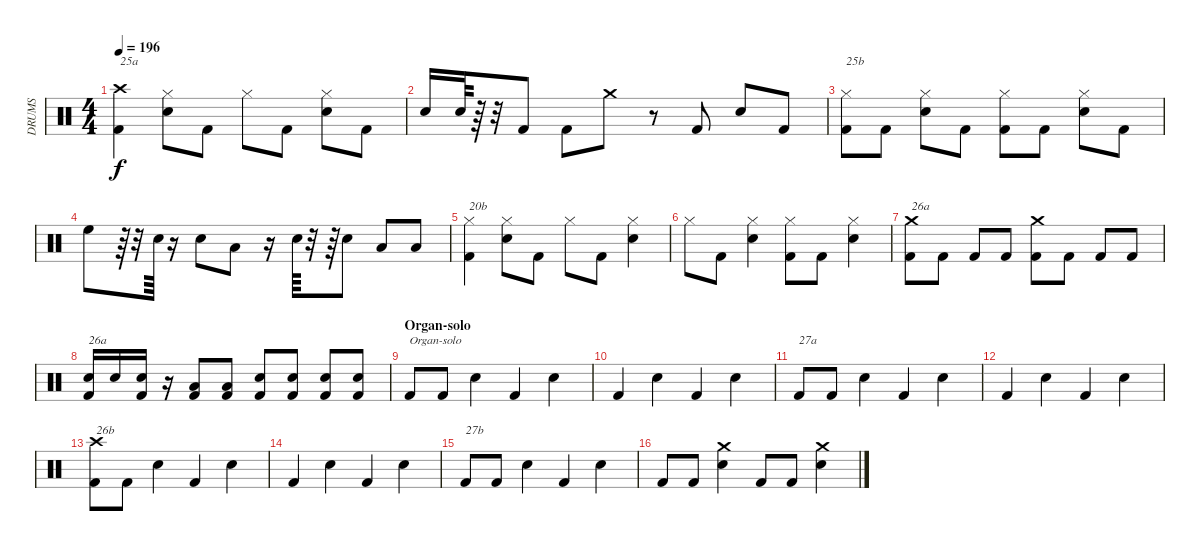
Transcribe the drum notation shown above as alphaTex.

\track ("DRUMS" "DRUMS") {instrument percussion}
\staff {score}
\articulation defaults
\ts (4 4)
\tempo 196
\clef neutral
\ks c
("Crash high (hit)" "Kick (hit) 2").4{txt "25a" dy f} ("Hi-Hat (closed)" "Snare (hit) 2").8 "Kick (hit) 2".8 "Hi-Hat (closed)".8 "Kick (hit) 2".8 ("Hi-Hat (closed)" "Snare (hit) 2").8 "Kick (hit) 2".8 |
"Snare (hit) 2".16 "Snare (hit) 2".64 r.64 r.32 "Kick (hit) 2".8 "Kick (hit) 2".8 "Crash medium (hit)".8 r.8 "Kick (hit) 2".8 "Snare (hit) 2".8 "Kick (hit) 2".8 |
("Hi-Hat (closed)" "Kick (hit) 2").8{txt "25b"} "Kick (hit) 2".8 ("Hi-Hat (closed)" "Snare (hit) 2").8 "Kick (hit) 2".8 ("Hi-Hat (closed)" "Kick (hit) 2").8 "Kick (hit) 2".8 ("Hi-Hat (closed)" "Snare (hit) 2").8 "Kick (hit) 2".8 |
"High Floor Tom (hit)".8 r.64 r.32 "Snare (hit) 2".64 r.16 "Snare (hit) 2".8 "Low Tom (hit)".8 r.16 "Snare (hit) 2".64 r.32 r.64 "Snare (hit) 2".8 "Low Floor Tom (hit)".8 "Low Floor Tom (hit)".8 |
("Hi-Hat (closed)" "Kick (hit) 2").4{txt "20b"} ("Hi-Hat (closed)" "Snare (hit) 2").8 "Kick (hit) 2".8 "Hi-Hat (closed)".8 "Kick (hit) 2".8 ("Hi-Hat (closed)" "Snare (hit) 2").4 |
"Hi-Hat (closed)".8 "Kick (hit) 2".8 ("Hi-Hat (closed)" "Snare (hit) 2").4 ("Hi-Hat (closed)" "Kick (hit) 2").8 "Kick (hit) 2".8 ("Hi-Hat (closed)" "Snare (hit) 2").4 |
("Crash medium (hit)" "Kick (hit) 2").8{txt "26a"} "Kick (hit) 2".8 "Kick (hit) 2".8 "Kick (hit) 2".8 ("Crash medium (hit)" "Kick (hit) 2").8 "Kick (hit) 2".8 "Kick (hit) 2".8 "Kick (hit) 2".8 |
("Snare (hit) 2" "Kick (hit) 2").16{txt "26a"} "Snare (hit) 2".16 ("Snare (hit) 2" "Kick (hit) 2").16 r.16 ("Low Tom (hit)" "Kick (hit) 2").8 ("Low Floor Tom (hit)" "Kick (hit) 2").8 ("Snare (hit) 2" "Kick (hit) 2").8 ("Snare (hit) 2" "Kick (hit) 2").8 ("Snare (hit) 2" "Kick (hit) 2").8 ("Snare (hit) 2" "Kick (hit) 2").8 |
\section ("" "Organ-solo")
"Kick (hit) 2".8{txt "Organ-solo"} "Kick (hit) 2".8 "Snare (hit) 2".4 "Kick (hit) 2".4 "Snare (hit) 2".4 |
"Kick (hit) 2".4 "Snare (hit) 2".4 "Kick (hit) 2".4 "Snare (hit) 2".4 |
"Kick (hit) 2".8{txt "27a"} "Kick (hit) 2".8 "Snare (hit) 2".4 "Kick (hit) 2".4 "Snare (hit) 2".4 |
"Kick (hit) 2".4 "Snare (hit) 2".4 "Kick (hit) 2".4 "Snare (hit) 2".4 |
("Crash high (hit)" "Kick (hit) 2").8{txt "26b"} "Kick (hit) 2".8 "Snare (hit) 2".4 "Kick (hit) 2".4 "Snare (hit) 2".4 |
"Kick (hit) 2".4 "Snare (hit) 2".4 "Kick (hit) 2".4 "Snare (hit) 2".4 |
"Kick (hit) 2".8{txt "27b"} "Kick (hit) 2".8 "Snare (hit) 2".4 "Kick (hit) 2".4 "Snare (hit) 2".4 |
"Kick (hit) 2".8 "Kick (hit) 2".8 ("Crash medium (hit)" "Snare (hit) 2").4 "Kick (hit) 2".8 "Kick (hit) 2".8 ("Crash medium (hit)" "Snare (hit) 2").4
